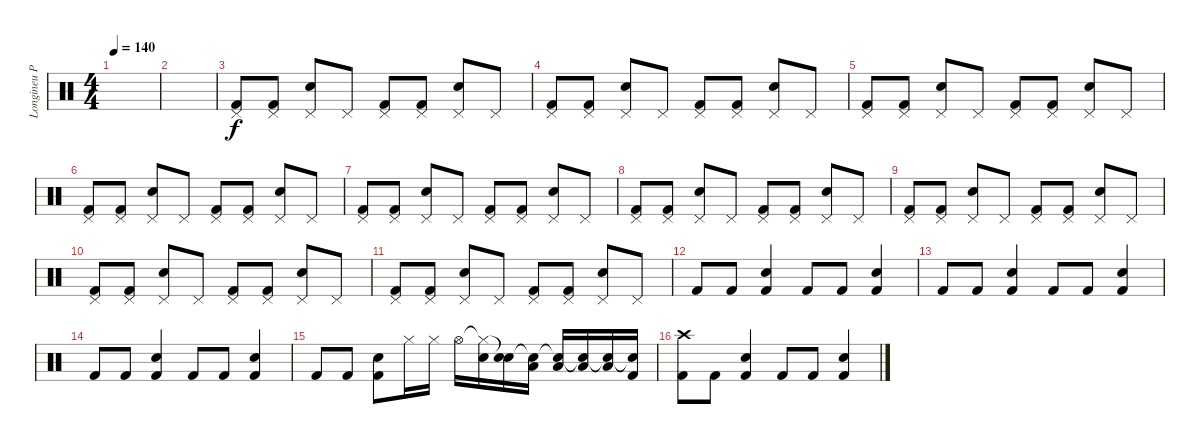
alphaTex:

\track ("Longineu Parsons III Drums" "Longineu P") {instrument percussion}
\staff {score}
\articulation defaults
\ts (4 4)
\tempo 140
\clef neutral
\ks c
|
|
("Kick (hit) 2" "Pedal Hi-Hat (hit)").8 ("Kick (hit) 2" "Pedal Hi-Hat (hit)").8 ("Snare (hit) 2" "Pedal Hi-Hat (hit)").8 "Pedal Hi-Hat (hit)".8 ("Kick (hit) 2" "Pedal Hi-Hat (hit)").8 ("Kick (hit) 2" "Pedal Hi-Hat (hit)").8 ("Snare (hit) 2" "Pedal Hi-Hat (hit)").8 "Pedal Hi-Hat (hit)".8 |
("Kick (hit) 2" "Pedal Hi-Hat (hit)").8 ("Kick (hit) 2" "Pedal Hi-Hat (hit)").8 ("Snare (hit) 2" "Pedal Hi-Hat (hit)").8 "Pedal Hi-Hat (hit)".8 ("Kick (hit) 2" "Pedal Hi-Hat (hit)").8 ("Kick (hit) 2" "Pedal Hi-Hat (hit)").8 ("Snare (hit) 2" "Pedal Hi-Hat (hit)").8 "Pedal Hi-Hat (hit)".8 |
("Kick (hit) 2" "Pedal Hi-Hat (hit)").8 ("Kick (hit) 2" "Pedal Hi-Hat (hit)").8 ("Snare (hit) 2" "Pedal Hi-Hat (hit)").8 "Pedal Hi-Hat (hit)".8 ("Kick (hit) 2" "Pedal Hi-Hat (hit)").8 ("Kick (hit) 2" "Pedal Hi-Hat (hit)").8 ("Snare (hit) 2" "Pedal Hi-Hat (hit)").8 "Pedal Hi-Hat (hit)".8 |
("Kick (hit) 2" "Pedal Hi-Hat (hit)").8 ("Kick (hit) 2" "Pedal Hi-Hat (hit)").8 ("Snare (hit) 2" "Pedal Hi-Hat (hit)").8 "Pedal Hi-Hat (hit)".8 ("Kick (hit) 2" "Pedal Hi-Hat (hit)").8 ("Kick (hit) 2" "Pedal Hi-Hat (hit)").8 ("Snare (hit) 2" "Pedal Hi-Hat (hit)").8 "Pedal Hi-Hat (hit)".8 |
("Kick (hit) 2" "Pedal Hi-Hat (hit)").8 ("Kick (hit) 2" "Pedal Hi-Hat (hit)").8 ("Snare (hit) 2" "Pedal Hi-Hat (hit)").8 "Pedal Hi-Hat (hit)".8 ("Kick (hit) 2" "Pedal Hi-Hat (hit)").8 ("Kick (hit) 2" "Pedal Hi-Hat (hit)").8 ("Snare (hit) 2" "Pedal Hi-Hat (hit)").8 "Pedal Hi-Hat (hit)".8 |
("Kick (hit) 2" "Pedal Hi-Hat (hit)").8 ("Kick (hit) 2" "Pedal Hi-Hat (hit)").8 ("Snare (hit) 2" "Pedal Hi-Hat (hit)").8 "Pedal Hi-Hat (hit)".8 ("Kick (hit) 2" "Pedal Hi-Hat (hit)").8 ("Kick (hit) 2" "Pedal Hi-Hat (hit)").8 ("Snare (hit) 2" "Pedal Hi-Hat (hit)").8 "Pedal Hi-Hat (hit)".8 |
("Kick (hit) 2" "Pedal Hi-Hat (hit)").8 ("Kick (hit) 2" "Pedal Hi-Hat (hit)").8 ("Snare (hit) 2" "Pedal Hi-Hat (hit)").8 "Pedal Hi-Hat (hit)".8 ("Kick (hit) 2" "Pedal Hi-Hat (hit)").8 ("Kick (hit) 2" "Pedal Hi-Hat (hit)").8 ("Snare (hit) 2" "Pedal Hi-Hat (hit)").8 "Pedal Hi-Hat (hit)".8 |
("Kick (hit) 2" "Pedal Hi-Hat (hit)").8 ("Kick (hit) 2" "Pedal Hi-Hat (hit)").8 ("Snare (hit) 2" "Pedal Hi-Hat (hit)").8 "Pedal Hi-Hat (hit)".8 ("Kick (hit) 2" "Pedal Hi-Hat (hit)").8 ("Kick (hit) 2" "Pedal Hi-Hat (hit)").8 ("Snare (hit) 2" "Pedal Hi-Hat (hit)").8 "Pedal Hi-Hat (hit)".8 |
("Kick (hit) 2" "Pedal Hi-Hat (hit)").8 ("Kick (hit) 2" "Pedal Hi-Hat (hit)").8 ("Snare (hit) 2" "Pedal Hi-Hat (hit)").8 "Pedal Hi-Hat (hit)".8 ("Kick (hit) 2" "Pedal Hi-Hat (hit)").8 ("Kick (hit) 2" "Pedal Hi-Hat (hit)").8 ("Snare (hit) 2" "Pedal Hi-Hat (hit)").8 "Pedal Hi-Hat (hit)".8 |
"Kick (hit) 2".8 "Kick (hit) 2".8 ("Snare (hit) 2" "Kick (hit) 2").4 "Kick (hit) 2".8 "Kick (hit) 2".8 ("Snare (hit) 2" "Kick (hit) 2").4 |
"Kick (hit) 2".8 "Kick (hit) 2".8 ("Snare (hit) 2" "Kick (hit) 2").4 "Kick (hit) 2".8 "Kick (hit) 2".8 ("Snare (hit) 2" "Kick (hit) 2").4 |
"Kick (hit) 2".8 "Kick (hit) 2".8 ("Snare (hit) 2" "Kick (hit) 2").4 "Kick (hit) 2".8 "Kick (hit) 2".8 ("Snare (hit) 2" "Kick (hit) 2").4 |
"Kick (hit) 2".8 "Kick (hit) 2".8 ("Kick (hit) 2" "Snare (hit) 2").8 "Hi-Hat (closed)".16 "Hi-Hat (closed)".16 "Hi-Hat (open)".16 ("Hi-Hat (closed)"{t} "Snare (hit) 2").16 ("Snare (hit)"{t} "Snare (hit) 2").16 ("Snare (hit)"{t} "Low Tom (hit)").16 ("Snare (hit)"{t} "Low Tom (hit)").16 ("Snare (hit)"{t} "Low Floor Tom (hit)").16 ("Snare (hit)"{t} "Low Floor Tom (hit)").16 ("Snare (hit)"{t} "Kick (hit) 2").16 |
("Crash high (hit)" "Kick (hit) 2").8 "Kick (hit) 2".8 ("Snare (hit) 2" "Kick (hit) 2").4 "Kick (hit) 2".8 "Kick (hit) 2".8 ("Snare (hit) 2" "Kick (hit) 2").4
